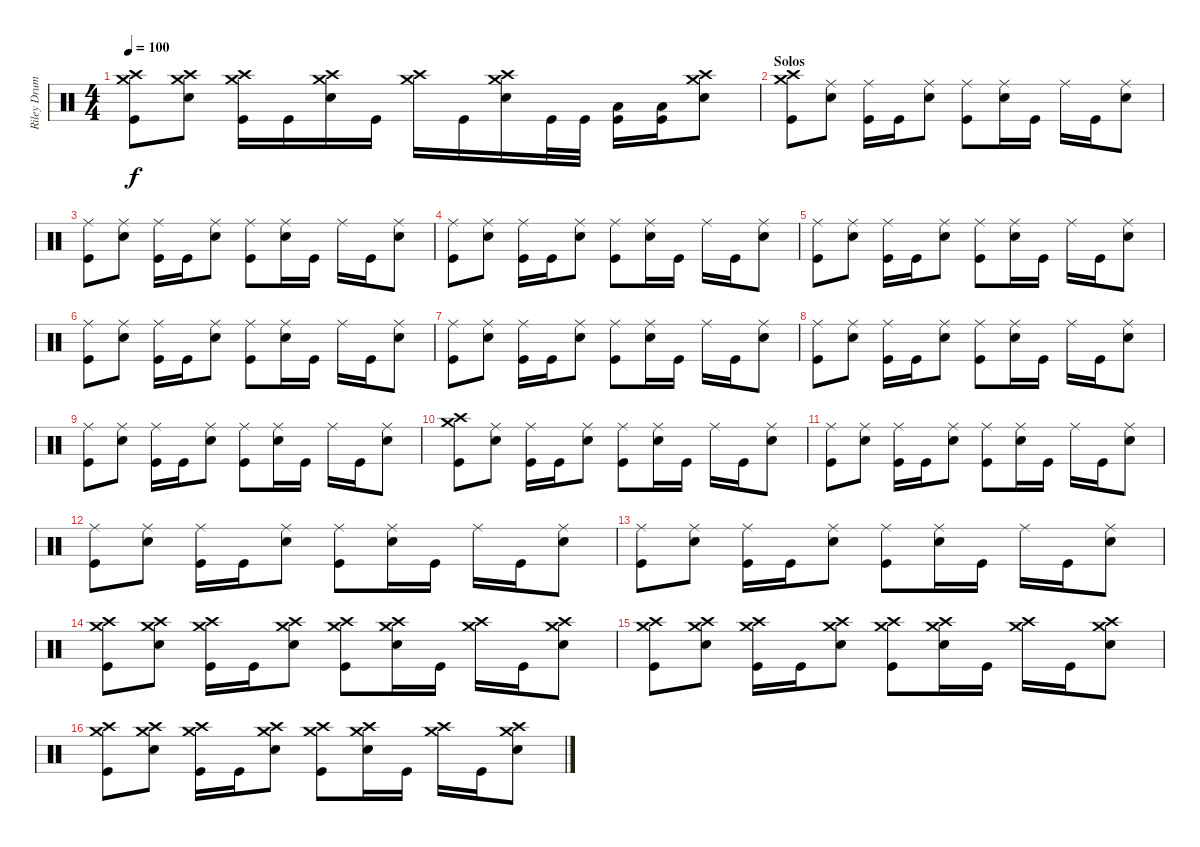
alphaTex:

\track ("Riley Drums" "Riley Drum") {instrument percussion}
\staff {score}
\articulation defaults
\ts (4 4)
\tempo 100
\clef neutral
\ks c
("Crash medium (hit)" "Crash high (hit)" "Kick (hit)").8{dy f} ("Crash medium (hit)" "Crash high (hit)" "Electric Snare (hit)").8 ("Crash medium (hit)" "Crash high (hit)" "Kick (hit)").16 "Kick (hit)".16 ("Crash medium (hit)" "Crash high (hit)" "Electric Snare (hit)").16 "Kick (hit)".16 ("Crash medium (hit)" "Crash high (hit)").16 "Kick (hit)".16 ("Crash medium (hit)" "Crash high (hit)" "Electric Snare (hit)").16 "Kick (hit)".32 "Kick (hit)".32 ("Low Floor Tom (hit)" "Kick (hit)").16 ("Low Floor Tom (hit)" "Kick (hit)").16 ("Crash medium (hit)" "Crash high (hit)" "Electric Snare (hit)").8 |
\section ("" "Solos")
("Crash medium (hit)" "Crash high (hit)" "Kick (hit)").8 ("Ride (middle)" "Electric Snare (hit)").8 ("Ride (middle)" "Kick (hit)").16 "Kick (hit)".16 ("Ride (middle)" "Electric Snare (hit)").8 ("Ride (middle)" "Kick (hit)").8 ("Ride (middle)" "Electric Snare (hit)").16 "Kick (hit)".16 "Ride (middle)".16 "Kick (hit)".16 ("Ride (middle)" "Electric Snare (hit)").8 |
("Ride (middle)" "Kick (hit)").8 ("Ride (middle)" "Electric Snare (hit)").8 ("Ride (middle)" "Kick (hit)").16 "Kick (hit)".16 ("Ride (middle)" "Electric Snare (hit)").8 ("Ride (middle)" "Kick (hit)").8 ("Ride (middle)" "Electric Snare (hit)").16 "Kick (hit)".16 "Ride (middle)".16 "Kick (hit)".16 ("Ride (middle)" "Electric Snare (hit)").8 |
("Ride (middle)" "Kick (hit)").8 ("Ride (middle)" "Electric Snare (hit)").8 ("Ride (middle)" "Kick (hit)").16 "Kick (hit)".16 ("Ride (middle)" "Electric Snare (hit)").8 ("Ride (middle)" "Kick (hit)").8 ("Ride (middle)" "Electric Snare (hit)").16 "Kick (hit)".16 "Ride (middle)".16 "Kick (hit)".16 ("Ride (middle)" "Electric Snare (hit)").8 |
("Ride (middle)" "Kick (hit)").8 ("Ride (middle)" "Electric Snare (hit)").8 ("Ride (middle)" "Kick (hit)").16 "Kick (hit)".16 ("Ride (middle)" "Electric Snare (hit)").8 ("Ride (middle)" "Kick (hit)").8 ("Ride (middle)" "Electric Snare (hit)").16 "Kick (hit)".16 "Ride (middle)".16 "Kick (hit)".16 ("Ride (middle)" "Electric Snare (hit)").8 |
("Ride (middle)" "Kick (hit)").8 ("Ride (middle)" "Electric Snare (hit)").8 ("Ride (middle)" "Kick (hit)").16 "Kick (hit)".16 ("Ride (middle)" "Electric Snare (hit)").8 ("Ride (middle)" "Kick (hit)").8 ("Ride (middle)" "Electric Snare (hit)").16 "Kick (hit)".16 "Ride (middle)".16 "Kick (hit)".16 ("Ride (middle)" "Electric Snare (hit)").8 |
("Ride (middle)" "Kick (hit)").8 ("Ride (middle)" "Electric Snare (hit)").8 ("Ride (middle)" "Kick (hit)").16 "Kick (hit)".16 ("Ride (middle)" "Electric Snare (hit)").8 ("Ride (middle)" "Kick (hit)").8 ("Ride (middle)" "Electric Snare (hit)").16 "Kick (hit)".16 "Ride (middle)".16 "Kick (hit)".16 ("Ride (middle)" "Electric Snare (hit)").8 |
("Ride (middle)" "Kick (hit)").8 ("Ride (middle)" "Electric Snare (hit)").8 ("Ride (middle)" "Kick (hit)").16 "Kick (hit)".16 ("Ride (middle)" "Electric Snare (hit)").8 ("Ride (middle)" "Kick (hit)").8 ("Ride (middle)" "Electric Snare (hit)").16 "Kick (hit)".16 "Ride (middle)".16 "Kick (hit)".16 ("Ride (middle)" "Electric Snare (hit)").8 |
("Ride (middle)" "Kick (hit)").8 ("Ride (middle)" "Electric Snare (hit)").8 ("Ride (middle)" "Kick (hit)").16 "Kick (hit)".16 ("Ride (middle)" "Electric Snare (hit)").8 ("Ride (middle)" "Kick (hit)").8 ("Ride (middle)" "Electric Snare (hit)").16 "Kick (hit)".16 "Ride (middle)".16 "Kick (hit)".16 ("Ride (middle)" "Electric Snare (hit)").8 |
("Crash medium (hit)" "Crash high (hit)" "Kick (hit)").8 ("Ride (middle)" "Electric Snare (hit)").8 ("Ride (middle)" "Kick (hit)").16 "Kick (hit)".16 ("Ride (middle)" "Electric Snare (hit)").8 ("Ride (middle)" "Kick (hit)").8 ("Ride (middle)" "Electric Snare (hit)").16 "Kick (hit)".16 "Ride (middle)".16 "Kick (hit)".16 ("Ride (middle)" "Electric Snare (hit)").8 |
("Ride (middle)" "Kick (hit)").8 ("Ride (middle)" "Electric Snare (hit)").8 ("Ride (middle)" "Kick (hit)").16 "Kick (hit)".16 ("Ride (middle)" "Electric Snare (hit)").8 ("Ride (middle)" "Kick (hit)").8 ("Ride (middle)" "Electric Snare (hit)").16 "Kick (hit)".16 "Ride (middle)".16 "Kick (hit)".16 ("Ride (middle)" "Electric Snare (hit)").8 |
("Ride (middle)" "Kick (hit)").8 ("Ride (middle)" "Electric Snare (hit)").8 ("Ride (middle)" "Kick (hit)").16 "Kick (hit)".16 ("Ride (middle)" "Electric Snare (hit)").8 ("Ride (middle)" "Kick (hit)").8 ("Ride (middle)" "Electric Snare (hit)").16 "Kick (hit)".16 "Ride (middle)".16 "Kick (hit)".16 ("Ride (middle)" "Electric Snare (hit)").8 |
("Ride (middle)" "Kick (hit)").8 ("Ride (middle)" "Electric Snare (hit)").8 ("Ride (middle)" "Kick (hit)").16 "Kick (hit)".16 ("Ride (middle)" "Electric Snare (hit)").8 ("Ride (middle)" "Kick (hit)").8 ("Ride (middle)" "Electric Snare (hit)").16 "Kick (hit)".16 "Ride (middle)".16 "Kick (hit)".16 ("Ride (middle)" "Electric Snare (hit)").8 |
("Crash medium (hit)" "Crash high (hit)" "Kick (hit)").8 ("Crash medium (hit)" "Crash high (hit)" "Electric Snare (hit)").8 ("Crash medium (hit)" "Crash high (hit)" "Kick (hit)").16 "Kick (hit)".16 ("Crash medium (hit)" "Crash high (hit)" "Electric Snare (hit)").8 ("Crash medium (hit)" "Crash high (hit)" "Kick (hit)").8 ("Crash medium (hit)" "Crash high (hit)" "Electric Snare (hit)").16 "Kick (hit)".16 ("Crash medium (hit)" "Crash high (hit)").16 "Kick (hit)".16 ("Crash medium (hit)" "Crash high (hit)" "Electric Snare (hit)").8 |
("Crash medium (hit)" "Crash high (hit)" "Kick (hit)").8 ("Crash medium (hit)" "Crash high (hit)" "Electric Snare (hit)").8 ("Crash medium (hit)" "Crash high (hit)" "Kick (hit)").16 "Kick (hit)".16 ("Crash medium (hit)" "Crash high (hit)" "Electric Snare (hit)").8 ("Crash medium (hit)" "Crash high (hit)" "Kick (hit)").8 ("Crash medium (hit)" "Crash high (hit)" "Electric Snare (hit)").16 "Kick (hit)".16 ("Crash medium (hit)" "Crash high (hit)").16 "Kick (hit)".16 ("Crash medium (hit)" "Crash high (hit)" "Electric Snare (hit)").8 |
("Crash medium (hit)" "Crash high (hit)" "Kick (hit)").8 ("Crash medium (hit)" "Crash high (hit)" "Electric Snare (hit)").8 ("Crash medium (hit)" "Crash high (hit)" "Kick (hit)").16 "Kick (hit)".16 ("Crash medium (hit)" "Crash high (hit)" "Electric Snare (hit)").8 ("Crash medium (hit)" "Crash high (hit)" "Kick (hit)").8 ("Crash medium (hit)" "Crash high (hit)" "Electric Snare (hit)").16 "Kick (hit)".16 ("Crash medium (hit)" "Crash high (hit)").16 "Kick (hit)".16 ("Crash medium (hit)" "Crash high (hit)" "Electric Snare (hit)").8
